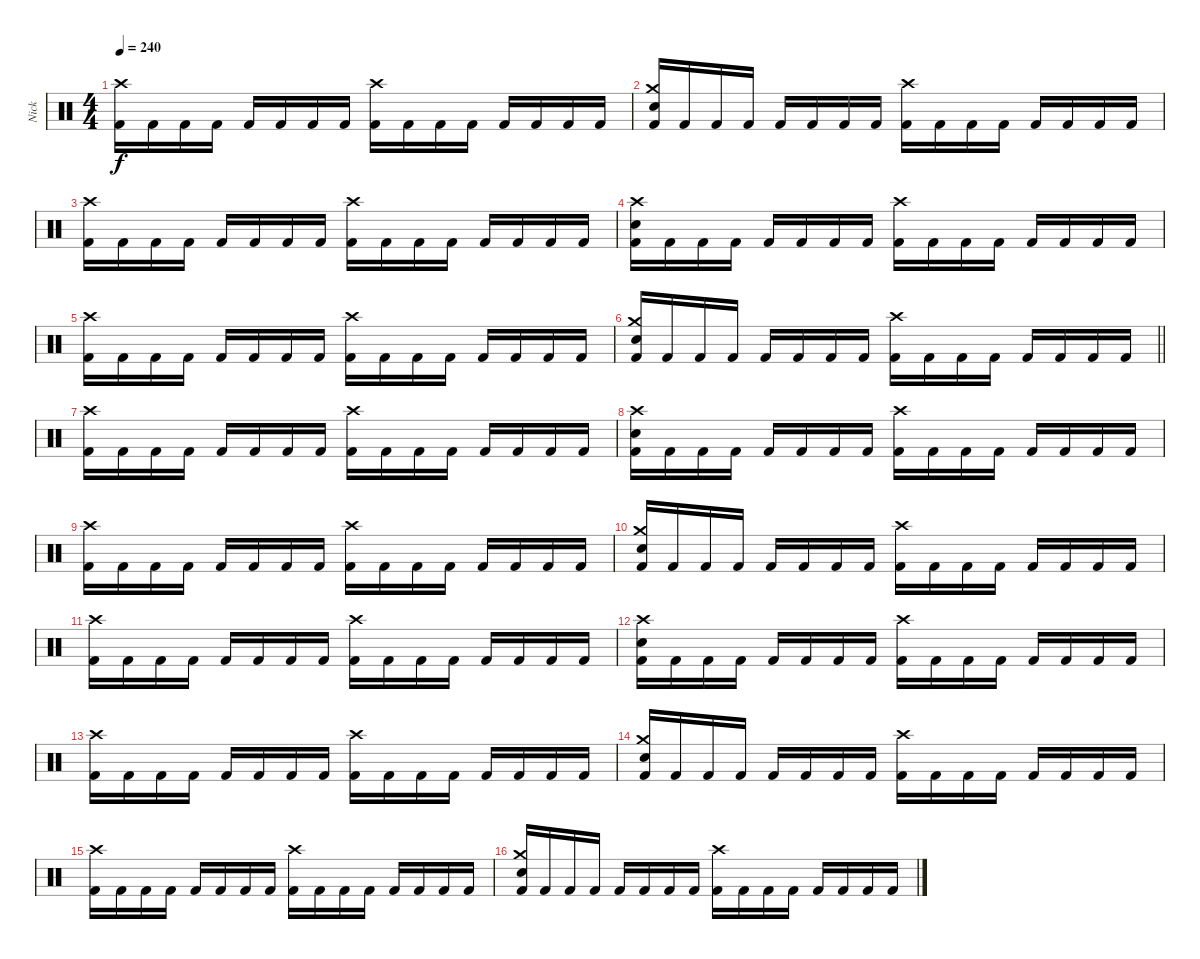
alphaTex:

\track ("Nick" "Nick") {instrument percussion}
\staff {score}
\articulation defaults
\ts (4 4)
\tempo 240
\clef neutral
\ks c
("Crash high (hit)" "Kick (hit) 2").16{dy f} "Kick (hit) 2".16 "Kick (hit) 2".16 "Kick (hit) 2".16 "Kick (hit) 2".16 "Kick (hit) 2".16 "Kick (hit) 2".16 "Kick (hit) 2".16 ("Crash high (hit)" "Kick (hit) 2").16 "Kick (hit) 2".16 "Kick (hit) 2".16 "Kick (hit) 2".16 "Kick (hit) 2".16 "Kick (hit) 2".16 "Kick (hit) 2".16 "Kick (hit) 2".16 |
("Crash medium (hit)" "Electric Snare (hit)" "Kick (hit) 2").16 "Kick (hit) 2".16 "Kick (hit) 2".16 "Kick (hit) 2".16 "Kick (hit) 2".16 "Kick (hit) 2".16 "Kick (hit) 2".16 "Kick (hit) 2".16 ("Crash high (hit)" "Kick (hit) 2").16 "Kick (hit) 2".16 "Kick (hit) 2".16 "Kick (hit) 2".16 "Kick (hit) 2".16 "Kick (hit) 2".16 "Kick (hit) 2".16 "Kick (hit) 2".16 |
("Crash high (hit)" "Kick (hit) 2").16 "Kick (hit) 2".16 "Kick (hit) 2".16 "Kick (hit) 2".16 "Kick (hit) 2".16 "Kick (hit) 2".16 "Kick (hit) 2".16 "Kick (hit) 2".16 ("Crash high (hit)" "Kick (hit) 2").16 "Kick (hit) 2".16 "Kick (hit) 2".16 "Kick (hit) 2".16 "Kick (hit) 2".16 "Kick (hit) 2".16 "Kick (hit) 2".16 "Kick (hit) 2".16 |
("Crash high (hit)" "Electric Snare (hit)" "Kick (hit) 2").16 "Kick (hit) 2".16 "Kick (hit) 2".16 "Kick (hit) 2".16 "Kick (hit) 2".16 "Kick (hit) 2".16 "Kick (hit) 2".16 "Kick (hit) 2".16 ("Crash high (hit)" "Kick (hit) 2").16 "Kick (hit) 2".16 "Kick (hit) 2".16 "Kick (hit) 2".16 "Kick (hit) 2".16 "Kick (hit) 2".16 "Kick (hit) 2".16 "Kick (hit) 2".16 |
("Crash high (hit)" "Kick (hit) 2").16 "Kick (hit) 2".16 "Kick (hit) 2".16 "Kick (hit) 2".16 "Kick (hit) 2".16 "Kick (hit) 2".16 "Kick (hit) 2".16 "Kick (hit) 2".16 ("Crash high (hit)" "Kick (hit) 2").16 "Kick (hit) 2".16 "Kick (hit) 2".16 "Kick (hit) 2".16 "Kick (hit) 2".16 "Kick (hit) 2".16 "Kick (hit) 2".16 "Kick (hit) 2".16 |
\barLineRight lightlight
("Crash medium (hit)" "Electric Snare (hit)" "Kick (hit) 2").16 "Kick (hit) 2".16 "Kick (hit) 2".16 "Kick (hit) 2".16 "Kick (hit) 2".16 "Kick (hit) 2".16 "Kick (hit) 2".16 "Kick (hit) 2".16 ("Crash high (hit)" "Kick (hit) 2").16 "Kick (hit) 2".16 "Kick (hit) 2".16 "Kick (hit) 2".16 "Kick (hit) 2".16 "Kick (hit) 2".16 "Kick (hit) 2".16 "Kick (hit) 2".16 |
("Crash high (hit)" "Kick (hit) 2").16 "Kick (hit) 2".16 "Kick (hit) 2".16 "Kick (hit) 2".16 "Kick (hit) 2".16 "Kick (hit) 2".16 "Kick (hit) 2".16 "Kick (hit) 2".16 ("Crash high (hit)" "Kick (hit) 2").16 "Kick (hit) 2".16 "Kick (hit) 2".16 "Kick (hit) 2".16 "Kick (hit) 2".16 "Kick (hit) 2".16 "Kick (hit) 2".16 "Kick (hit) 2".16 |
("Crash high (hit)" "Electric Snare (hit)" "Kick (hit) 2").16 "Kick (hit) 2".16 "Kick (hit) 2".16 "Kick (hit) 2".16 "Kick (hit) 2".16 "Kick (hit) 2".16 "Kick (hit) 2".16 "Kick (hit) 2".16 ("Crash high (hit)" "Kick (hit) 2").16 "Kick (hit) 2".16 "Kick (hit) 2".16 "Kick (hit) 2".16 "Kick (hit) 2".16 "Kick (hit) 2".16 "Kick (hit) 2".16 "Kick (hit) 2".16 |
("Crash high (hit)" "Kick (hit) 2").16 "Kick (hit) 2".16 "Kick (hit) 2".16 "Kick (hit) 2".16 "Kick (hit) 2".16 "Kick (hit) 2".16 "Kick (hit) 2".16 "Kick (hit) 2".16 ("Crash high (hit)" "Kick (hit) 2").16 "Kick (hit) 2".16 "Kick (hit) 2".16 "Kick (hit) 2".16 "Kick (hit) 2".16 "Kick (hit) 2".16 "Kick (hit) 2".16 "Kick (hit) 2".16 |
("Crash medium (hit)" "Electric Snare (hit)" "Kick (hit) 2").16 "Kick (hit) 2".16 "Kick (hit) 2".16 "Kick (hit) 2".16 "Kick (hit) 2".16 "Kick (hit) 2".16 "Kick (hit) 2".16 "Kick (hit) 2".16 ("Crash high (hit)" "Kick (hit) 2").16 "Kick (hit) 2".16 "Kick (hit) 2".16 "Kick (hit) 2".16 "Kick (hit) 2".16 "Kick (hit) 2".16 "Kick (hit) 2".16 "Kick (hit) 2".16 |
("Crash high (hit)" "Kick (hit) 2").16 "Kick (hit) 2".16 "Kick (hit) 2".16 "Kick (hit) 2".16 "Kick (hit) 2".16 "Kick (hit) 2".16 "Kick (hit) 2".16 "Kick (hit) 2".16 ("Crash high (hit)" "Kick (hit) 2").16 "Kick (hit) 2".16 "Kick (hit) 2".16 "Kick (hit) 2".16 "Kick (hit) 2".16 "Kick (hit) 2".16 "Kick (hit) 2".16 "Kick (hit) 2".16 |
("Crash high (hit)" "Electric Snare (hit)" "Kick (hit) 2").16 "Kick (hit) 2".16 "Kick (hit) 2".16 "Kick (hit) 2".16 "Kick (hit) 2".16 "Kick (hit) 2".16 "Kick (hit) 2".16 "Kick (hit) 2".16 ("Crash high (hit)" "Kick (hit) 2").16 "Kick (hit) 2".16 "Kick (hit) 2".16 "Kick (hit) 2".16 "Kick (hit) 2".16 "Kick (hit) 2".16 "Kick (hit) 2".16 "Kick (hit) 2".16 |
("Crash high (hit)" "Kick (hit) 2").16 "Kick (hit) 2".16 "Kick (hit) 2".16 "Kick (hit) 2".16 "Kick (hit) 2".16 "Kick (hit) 2".16 "Kick (hit) 2".16 "Kick (hit) 2".16 ("Crash high (hit)" "Kick (hit) 2").16 "Kick (hit) 2".16 "Kick (hit) 2".16 "Kick (hit) 2".16 "Kick (hit) 2".16 "Kick (hit) 2".16 "Kick (hit) 2".16 "Kick (hit) 2".16 |
("Crash medium (hit)" "Electric Snare (hit)" "Kick (hit) 2").16 "Kick (hit) 2".16 "Kick (hit) 2".16 "Kick (hit) 2".16 "Kick (hit) 2".16 "Kick (hit) 2".16 "Kick (hit) 2".16 "Kick (hit) 2".16 ("Crash high (hit)" "Kick (hit) 2").16 "Kick (hit) 2".16 "Kick (hit) 2".16 "Kick (hit) 2".16 "Kick (hit) 2".16 "Kick (hit) 2".16 "Kick (hit) 2".16 "Kick (hit) 2".16 |
("Crash high (hit)" "Kick (hit) 2").16 "Kick (hit) 2".16 "Kick (hit) 2".16 "Kick (hit) 2".16 "Kick (hit) 2".16 "Kick (hit) 2".16 "Kick (hit) 2".16 "Kick (hit) 2".16 ("Crash high (hit)" "Kick (hit) 2").16 "Kick (hit) 2".16 "Kick (hit) 2".16 "Kick (hit) 2".16 "Kick (hit) 2".16 "Kick (hit) 2".16 "Kick (hit) 2".16 "Kick (hit) 2".16 |
("Crash medium (hit)" "Electric Snare (hit)" "Kick (hit) 2").16 "Kick (hit) 2".16 "Kick (hit) 2".16 "Kick (hit) 2".16 "Kick (hit) 2".16 "Kick (hit) 2".16 "Kick (hit) 2".16 "Kick (hit) 2".16 ("Crash high (hit)" "Kick (hit) 2").16 "Kick (hit) 2".16 "Kick (hit) 2".16 "Kick (hit) 2".16 "Kick (hit) 2".16 "Kick (hit) 2".16 "Kick (hit) 2".16 "Kick (hit) 2".16
